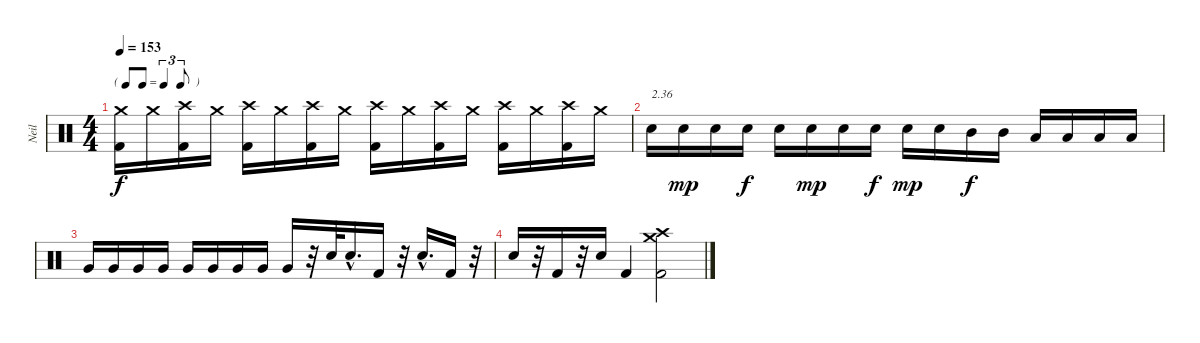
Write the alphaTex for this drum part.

\track ("Neil" "Neil") {instrument percussion}
\staff {score}
\articulation defaults
\ts (4 4)
\tf triplet8th
\tempo 153
\clef neutral
\ks c
("Kick (hit) 2" "Crash medium (hit)").16{dy f} "Crash medium (hit)".16 ("Kick (hit) 2" "Crash high (hit)").16 "Crash medium (hit)".16 ("Kick (hit) 2" "Crash high (hit)").16 "Crash medium (hit)".16 ("Kick (hit) 2" "Crash high (hit)").16 "Crash medium (hit)".16 ("Kick (hit) 2" "Crash high (hit)").16 "Crash medium (hit)".16 ("Kick (hit) 2" "Crash high (hit)").16 "Crash medium (hit)".16 ("Kick (hit) 2" "Crash high (hit)").16 "Crash medium (hit)".16 ("Kick (hit) 2" "Crash high (hit)").16 "Crash medium (hit)".16 |
"Electric Snare (hit)".16{txt "2.36"} "Electric Snare (hit)".16{dy mp} "Electric Snare (hit)".16 "Electric Snare (hit)".16{dy f} "Electric Snare (hit)".16 "Electric Snare (hit)".16{dy mp} "Electric Snare (hit)".16 "Electric Snare (hit)".16{dy f} "Electric Snare (hit)".16{dy mp} "Electric Snare (hit)".16 "Mid Tom (hit)".16{dy f} "Mid Tom (hit)".16 "Low Tom (hit)".16 "Low Tom (hit)".16 "Low Tom (hit)".16 "Low Tom (hit)".16 |
"Very Low Tom (hit)".16 "Very Low Tom (hit)".16 "Very Low Tom (hit)".16 "Very Low Tom (hit)".16 "Very Low Tom (hit)".16 "Very Low Tom (hit)".16 "Very Low Tom (hit)".16 "Very Low Tom (hit)".16 "Very Low Tom (hit)".16 r.32 "Electric Snare (hit)".32 "Electric Snare (hit)"{hac}.16{d} "Kick (hit) 2".16 r.32 "Electric Snare (hit)"{hac}.16{d} "Kick (hit) 2".16 r.32 |
"Electric Snare (hit)".16 r.32 "Kick (hit) 2".16 r.32 "Electric Snare (hit)".16 "Kick (hit) 2".4 ("Kick (hit) 2" "Crash medium (hit)" "Crash high (hit)").2
